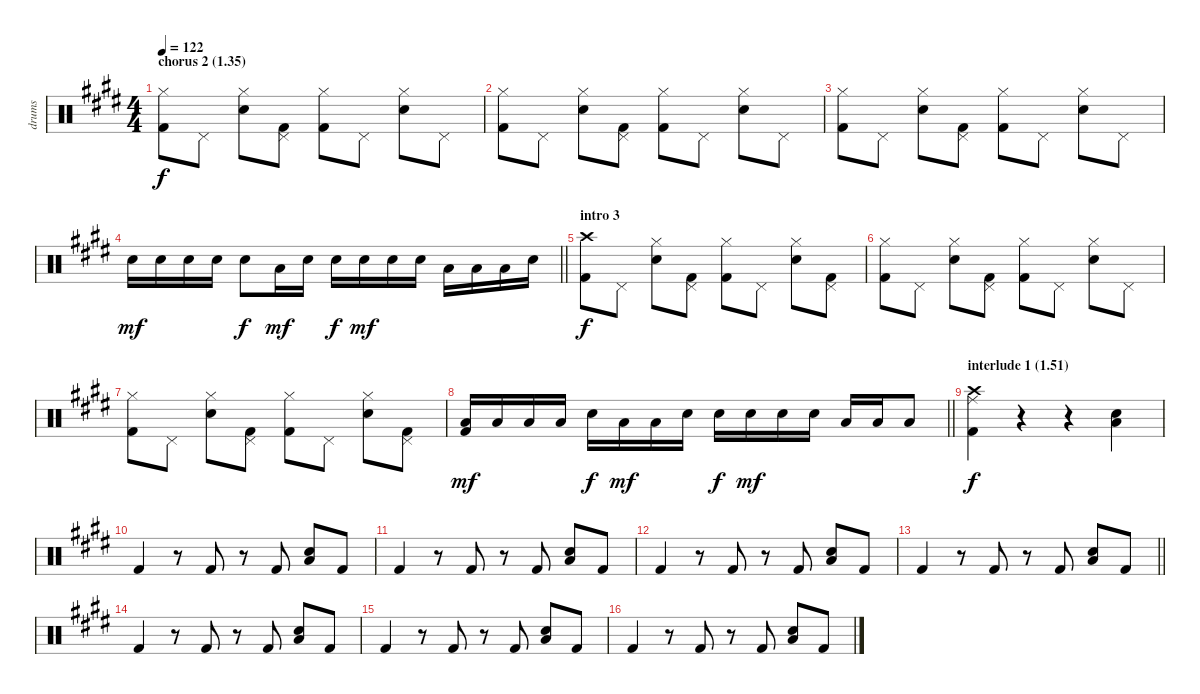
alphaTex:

\track ("drums" "drums") {instrument percussion}
\staff {score}
\articulation defaults
\ts (4 4)
\section ("" "chorus 2 (1.35)")
\tempo 122
\clef neutral
\ks e
("Hi-Hat (closed)" "Kick (hit) 2").8{dy f} "Pedal Hi-Hat (hit)".8 ("Hi-Hat (closed)" "Electric Snare (hit)").8 ("Pedal Hi-Hat (hit)" "Kick (hit) 2").8 ("Hi-Hat (closed)" "Kick (hit) 2").8 "Pedal Hi-Hat (hit)".8 ("Hi-Hat (closed)" "Electric Snare (hit)").8 "Pedal Hi-Hat (hit)".8 |
("Hi-Hat (closed)" "Kick (hit) 2").8 "Pedal Hi-Hat (hit)".8 ("Hi-Hat (closed)" "Electric Snare (hit)").8 ("Pedal Hi-Hat (hit)" "Kick (hit) 2").8 ("Hi-Hat (closed)" "Kick (hit) 2").8 "Pedal Hi-Hat (hit)".8 ("Hi-Hat (closed)" "Electric Snare (hit)").8 "Pedal Hi-Hat (hit)".8 |
("Hi-Hat (closed)" "Kick (hit) 2").8 "Pedal Hi-Hat (hit)".8 ("Hi-Hat (closed)" "Electric Snare (hit)").8 ("Pedal Hi-Hat (hit)" "Kick (hit) 2").8 ("Hi-Hat (closed)" "Kick (hit) 2").8 "Pedal Hi-Hat (hit)".8 ("Hi-Hat (closed)" "Electric Snare (hit)").8 "Pedal Hi-Hat (hit)".8 |
\barLineRight lightlight "Electric Snare (hit)".16{dy mf} "Electric Snare (hit)".16 "Electric Snare (hit)".16 "Electric Snare (hit)".16 "Electric Snare (hit)".8{dy f} "Low Tom (hit)".16{dy mf} "Electric Snare (hit)".16 "Electric Snare (hit)".16{dy f} "Electric Snare (hit)".16{dy mf} "Electric Snare (hit)".16 "Electric Snare (hit)".16 "Low Tom (hit)".16 "Low Tom (hit)".16 "Low Tom (hit)".16 "Electric Snare (hit)".16
|
\section ("" "intro 3")
("Crash high (hit)" "Kick (hit) 2").8{dy f} "Pedal Hi-Hat (hit)".8 ("Hi-Hat (closed)" "Electric Snare (hit)").8 ("Pedal Hi-Hat (hit)" "Kick (hit) 2").8 ("Hi-Hat (closed)" "Kick (hit) 2").8 "Pedal Hi-Hat (hit)".8 ("Hi-Hat (closed)" "Electric Snare (hit)").8 ("Pedal Hi-Hat (hit)" "Kick (hit) 2").8 |
("Hi-Hat (closed)" "Kick (hit) 2").8 "Pedal Hi-Hat (hit)".8 ("Hi-Hat (closed)" "Electric Snare (hit)").8 ("Pedal Hi-Hat (hit)" "Kick (hit) 2").8 ("Hi-Hat (closed)" "Kick (hit) 2").8 "Pedal Hi-Hat (hit)".8 ("Hi-Hat (closed)" "Electric Snare (hit)").8 "Pedal Hi-Hat (hit)".8 |
("Hi-Hat (closed)" "Kick (hit) 2").8 "Pedal Hi-Hat (hit)".8 ("Hi-Hat (closed)" "Electric Snare (hit)").8 ("Pedal Hi-Hat (hit)" "Kick (hit) 2").8 ("Hi-Hat (closed)" "Kick (hit) 2").8 "Pedal Hi-Hat (hit)".8 ("Hi-Hat (closed)" "Electric Snare (hit)").8 ("Pedal Hi-Hat (hit)" "Kick (hit) 2").8 |
\barLineRight lightlight
("Low Tom (hit)" "Kick (hit) 2").16{dy mf} "Low Tom (hit)".16 "Low Tom (hit)".16 "Low Tom (hit)".16 "Electric Snare (hit)".16{dy f} "Low Tom (hit)".16{dy mf} "Low Tom (hit)".16 "Electric Snare (hit)".16 "Electric Snare (hit)".16{dy f} "Electric Snare (hit)".16{dy mf} "Electric Snare (hit)".16 "Electric Snare (hit)".16 "Low Tom (hit)".16 "Low Tom (hit)".16 "Low Tom (hit)".8 |
\section ("" "interlude 1 (1.51)")
("Ride (middle)" "Crash high (hit)" "Kick (hit) 2").4{dy f} r.4 r.4 ("Low Tom (hit)" "Electric Snare (hit)").4 |
"Kick (hit) 2".4 r.8 "Kick (hit) 2".8 r.8 "Kick (hit) 2".8 ("Low Tom (hit)" "Electric Snare (hit)").8 "Kick (hit) 2".8 |
"Kick (hit) 2".4 r.8 "Kick (hit) 2".8 r.8 "Kick (hit) 2".8 ("Low Tom (hit)" "Electric Snare (hit)").8 "Kick (hit) 2".8 |
"Kick (hit) 2".4 r.8 "Kick (hit) 2".8 r.8 "Kick (hit) 2".8 ("Low Tom (hit)" "Electric Snare (hit)").8 "Kick (hit) 2".8 |
\barLineRight lightlight "Kick (hit) 2".4
r.8 "Kick (hit) 2".8 r.8 "Kick (hit) 2".8 ("Low Tom (hit)" "Electric Snare (hit)").8 "Kick (hit) 2".8 |
"Kick (hit) 2".4 r.8 "Kick (hit) 2".8 r.8 "Kick (hit) 2".8 ("Low Tom (hit)" "Electric Snare (hit)").8 "Kick (hit) 2".8 |
"Kick (hit) 2".4 r.8 "Kick (hit) 2".8 r.8 "Kick (hit) 2".8 ("Low Tom (hit)" "Electric Snare (hit)").8 "Kick (hit) 2".8 |
"Kick (hit) 2".4 r.8 "Kick (hit) 2".8 r.8 "Kick (hit) 2".8 ("Low Tom (hit)" "Electric Snare (hit)").8 "Kick (hit) 2".8
